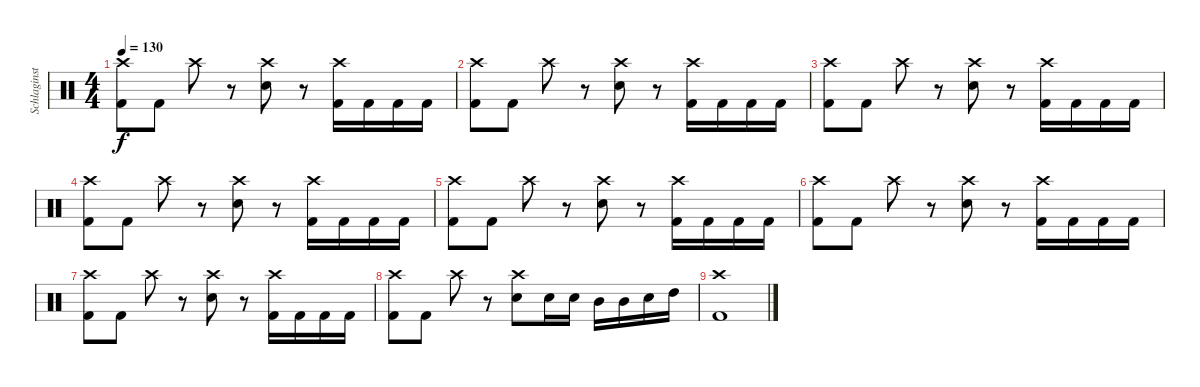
\track ("Schlaginstrumente - Auswahl" "Schlaginst") {instrument percussion}
\staff {score}
\articulation defaults
\ts (4 4)
\tempo 130
\clef neutral
\ks c
("Crash high (hit)" "Kick (hit) 2").8{dy f} "Kick (hit) 2".8 "Crash high (hit)".8 r.8 ("Crash high (hit)" "Electric Snare (hit)").8 r.8 ("Crash high (hit)" "Kick (hit) 2").16 "Kick (hit) 2".16 "Kick (hit) 2".16 "Kick (hit) 2".16 |
("Crash high (hit)" "Kick (hit) 2").8 "Kick (hit) 2".8 "Crash high (hit)".8 r.8 ("Crash high (hit)" "Electric Snare (hit)").8 r.8 ("Crash high (hit)" "Kick (hit) 2").16 "Kick (hit) 2".16 "Kick (hit) 2".16 "Kick (hit) 2".16 |
("Crash high (hit)" "Kick (hit) 2").8 "Kick (hit) 2".8 "Crash high (hit)".8 r.8 ("Crash high (hit)" "Electric Snare (hit)").8 r.8 ("Crash high (hit)" "Kick (hit) 2").16 "Kick (hit) 2".16 "Kick (hit) 2".16 "Kick (hit) 2".16 |
("Crash high (hit)" "Kick (hit) 2").8 "Kick (hit) 2".8 "Crash high (hit)".8 r.8 ("Crash high (hit)" "Electric Snare (hit)").8 r.8 ("Crash high (hit)" "Kick (hit) 2").16 "Kick (hit) 2".16 "Kick (hit) 2".16 "Kick (hit) 2".16 |
("Crash high (hit)" "Kick (hit) 2").8 "Kick (hit) 2".8 "Crash high (hit)".8 r.8 ("Crash high (hit)" "Electric Snare (hit)").8 r.8 ("Crash high (hit)" "Kick (hit) 2").16 "Kick (hit) 2".16 "Kick (hit) 2".16 "Kick (hit) 2".16 |
("Crash high (hit)" "Kick (hit) 2").8 "Kick (hit) 2".8 "Crash high (hit)".8 r.8 ("Crash high (hit)" "Electric Snare (hit)").8 r.8 ("Crash high (hit)" "Kick (hit) 2").16 "Kick (hit) 2".16 "Kick (hit) 2".16 "Kick (hit) 2".16 |
("Crash high (hit)" "Kick (hit) 2").8 "Kick (hit) 2".8 "Crash high (hit)".8 r.8 ("Crash high (hit)" "Electric Snare (hit)").8 r.8 ("Crash high (hit)" "Kick (hit) 2").16 "Kick (hit) 2".16 "Kick (hit) 2".16 "Kick (hit) 2".16 |
("Crash high (hit)" "Kick (hit) 2").8 "Kick (hit) 2".8 "Crash high (hit)".8 r.8 ("Crash high (hit)" "Electric Snare (hit)").8 "Electric Snare (hit)".16 "Electric Snare (hit)".16 "Mid Tom (hit)".16 "Mid Tom (hit)".16 "Electric Snare (hit)".16 "High Tom (hit)".16 |
("Crash high (hit)" "Kick (hit) 2").1
